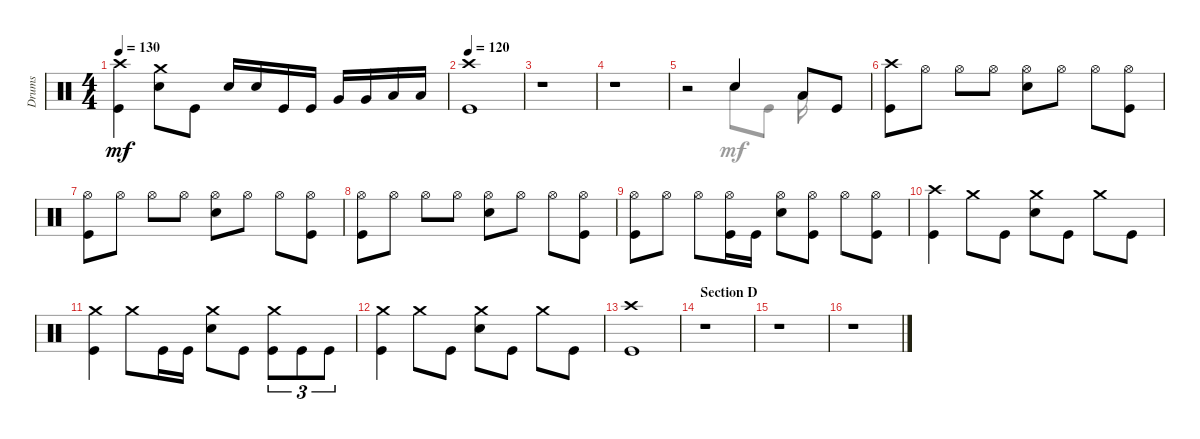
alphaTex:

\track ("Drums" "Drums") {instrument percussion}
\staff {score}
\articulation defaults
\voice
\ts (4 4)
\tempo 130
\clef neutral
\ks aminor
("Kick (hit)" "Crash high (hit)").4{dy mf} ("Crash medium (hit)" "Snare (hit) 2").8 "Kick (hit)".8 "Snare (hit) 2".16 "Snare (hit) 2".16 "Kick (hit)".16 "Kick (hit)".16 "Very Low Tom (hit)".16 "Very Low Tom (hit)".16 "Low Floor Tom (hit)".16 "Low Floor Tom (hit)".16 |
\tempo 120
("Kick (hit)" "Crash high (hit)").1 |
r.1 |
r.1 |
r.2 "Snare (hit) 2".4 "Low Floor Tom (hit)".8 "Kick (hit)".8 |
("Crash high (hit)" "Kick (hit)").8 "Hi-Hat (open)".8 "Hi-Hat (open)".8 "Hi-Hat (open)".8 ("Hi-Hat (open)" "Snare (hit) 2").8 "Hi-Hat (open)".8 "Hi-Hat (open)".8 ("Hi-Hat (open)" "Kick (hit)").8 |
("Kick (hit)" "Hi-Hat (open)").8 "Hi-Hat (open)".8 "Hi-Hat (open)".8 "Hi-Hat (open)".8 ("Hi-Hat (open)" "Snare (hit) 2").8 "Hi-Hat (open)".8 "Hi-Hat (open)".8 ("Hi-Hat (open)" "Kick (hit)").8 |
("Kick (hit)" "Hi-Hat (open)").8 "Hi-Hat (open)".8 "Hi-Hat (open)".8 "Hi-Hat (open)".8 ("Hi-Hat (open)" "Snare (hit) 2").8 "Hi-Hat (open)".8 "Hi-Hat (open)".8 ("Kick (hit)" "Hi-Hat (open)").8 |
("Kick (hit)" "Hi-Hat (open)").8 "Hi-Hat (open)".8 "Hi-Hat (open)".8 ("Kick (hit)" "Hi-Hat (open)").16 "Kick (hit)".16 ("Snare (hit) 2" "Hi-Hat (open)").8 ("Kick (hit)" "Hi-Hat (open)").8 "Hi-Hat (open)".8 ("Kick (hit)" "Hi-Hat (open)").8 |
("Crash high (hit)" "Kick (hit)").4 "Crash medium (hit)".8 "Kick (hit)".8 ("Crash medium (hit)" "Snare (hit) 2").8 "Kick (hit)".8 "Crash medium (hit)".8 "Kick (hit)".8 |
("Crash medium (hit)" "Kick (hit)").4 "Crash medium (hit)".8 "Kick (hit)".16 "Kick (hit)".16 ("Snare (hit) 2" "Crash medium (hit)").8 "Kick (hit)".8 ("Kick (hit)" "Crash medium (hit)").8{tu (3 2)} "Kick (hit)".8{tu (3 2)} "Kick (hit)".8{tu (3 2)} |
("Crash medium (hit)" "Kick (hit)").4 "Crash medium (hit)".8 "Kick (hit)".8 ("Snare (hit) 2" "Crash medium (hit)").8 "Kick (hit)".8 "Crash medium (hit)".8 "Kick (hit)".8 |
("Kick (hit)" "Crash high (hit)").1 |
\section ("" "Section D")
r.1 |
r.1 |
r.1
\voice
\clef neutral
\ottava regular
\simile none
\ks aminor
|
|
|
|
r.2 "Snare (hit) 2".8 "Kick (hit)".8 "Low Floor Tom (hit)".16 |
|
|
|
|
|
|
|
|
|
|
